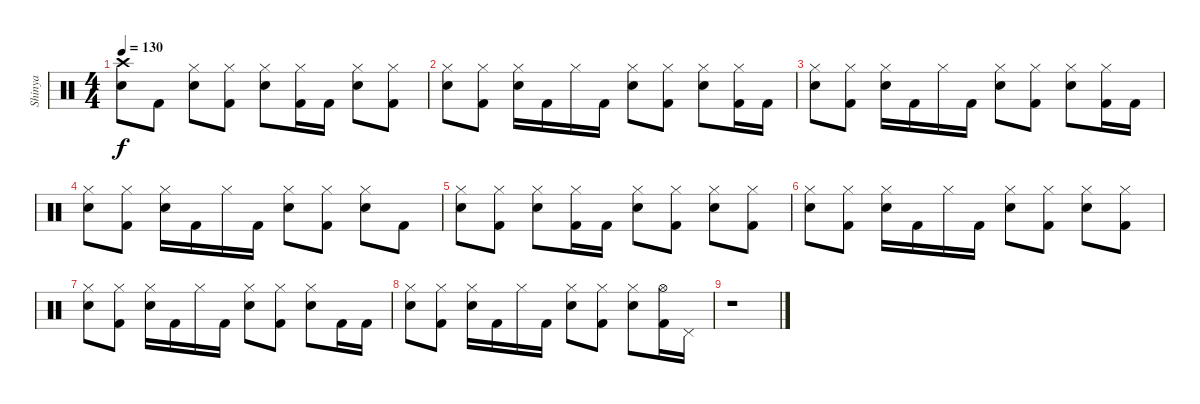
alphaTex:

\track ("Shinya" "Shinya") {instrument percussion}
\staff {score}
\articulation defaults
\ts (4 4)
\tempo 130
\clef neutral
\ks c
("Crash high (hit)" "Electric Snare (hit)").8{dy f} "Kick (hit) 2".8 ("Hi-Hat (closed)" "Electric Snare (hit)").8 ("Hi-Hat (closed)" "Kick (hit) 2").8 ("Hi-Hat (closed)" "Electric Snare (hit)").8 ("Hi-Hat (closed)" "Kick (hit) 2").16 "Kick (hit) 2".16 ("Hi-Hat (closed)" "Electric Snare (hit)").8 ("Hi-Hat (closed)" "Kick (hit) 2").8 |
("Hi-Hat (closed)" "Electric Snare (hit)").8 ("Hi-Hat (closed)" "Kick (hit) 2").8 ("Hi-Hat (closed)" "Electric Snare (hit)").16 "Kick (hit) 2".16 "Hi-Hat (closed)".16 "Kick (hit) 2".16 ("Hi-Hat (closed)" "Electric Snare (hit)").8 ("Hi-Hat (closed)" "Kick (hit) 2").8 ("Hi-Hat (closed)" "Electric Snare (hit)").8 ("Hi-Hat (closed)" "Kick (hit) 2").16 "Kick (hit) 2".16 |
("Hi-Hat (closed)" "Electric Snare (hit)").8 ("Hi-Hat (closed)" "Kick (hit) 2").8 ("Hi-Hat (closed)" "Electric Snare (hit)").16 "Kick (hit) 2".16 "Hi-Hat (closed)".16 "Kick (hit) 2".16 ("Hi-Hat (closed)" "Electric Snare (hit)").8 ("Hi-Hat (closed)" "Kick (hit) 2").8 ("Hi-Hat (closed)" "Electric Snare (hit)").8 ("Hi-Hat (closed)" "Kick (hit) 2").16 "Kick (hit) 2".16 |
("Hi-Hat (closed)" "Electric Snare (hit)").8 ("Hi-Hat (closed)" "Kick (hit) 2").8 ("Hi-Hat (closed)" "Electric Snare (hit)").16 "Kick (hit) 2".16 "Hi-Hat (closed)".16 "Kick (hit) 2".16 ("Hi-Hat (closed)" "Electric Snare (hit)").8 ("Hi-Hat (closed)" "Kick (hit) 2").8 ("Hi-Hat (closed)" "Electric Snare (hit)").8 "Kick (hit) 2".8 |
("Hi-Hat (closed)" "Electric Snare (hit)").8 ("Hi-Hat (closed)" "Kick (hit) 2").8 ("Hi-Hat (closed)" "Electric Snare (hit)").8 ("Hi-Hat (closed)" "Kick (hit) 2").16 "Kick (hit) 2".16 ("Hi-Hat (closed)" "Electric Snare (hit)").8 ("Hi-Hat (closed)" "Kick (hit) 2").8 ("Hi-Hat (closed)" "Electric Snare (hit)").8 ("Hi-Hat (closed)" "Kick (hit) 2").8 |
("Hi-Hat (closed)" "Electric Snare (hit)").8 ("Hi-Hat (closed)" "Kick (hit) 2").8 ("Hi-Hat (closed)" "Electric Snare (hit)").16 "Kick (hit) 2".16 "Hi-Hat (closed)".16 "Kick (hit) 2".16 ("Hi-Hat (closed)" "Electric Snare (hit)").8 ("Hi-Hat (closed)" "Kick (hit) 2").8 ("Hi-Hat (closed)" "Electric Snare (hit)").8 ("Hi-Hat (closed)" "Kick (hit) 2").8 |
("Hi-Hat (closed)" "Electric Snare (hit)").8 ("Hi-Hat (closed)" "Kick (hit) 2").8 ("Hi-Hat (closed)" "Electric Snare (hit)").16 "Kick (hit) 2".16 "Hi-Hat (closed)".16 "Kick (hit) 2".16 ("Hi-Hat (closed)" "Electric Snare (hit)").8 ("Hi-Hat (closed)" "Kick (hit) 2").8 ("Hi-Hat (closed)" "Electric Snare (hit)").8 "Kick (hit) 2".16 "Kick (hit) 2".16 |
("Hi-Hat (closed)" "Electric Snare (hit)").8 ("Hi-Hat (closed)" "Kick (hit) 2").8 ("Hi-Hat (closed)" "Electric Snare (hit)").16 "Kick (hit) 2".16 "Hi-Hat (closed)".16 "Kick (hit) 2".16 ("Hi-Hat (closed)" "Electric Snare (hit)").8 ("Hi-Hat (closed)" "Kick (hit) 2").8 ("Hi-Hat (closed)" "Electric Snare (hit)").8 ("Hi-Hat (open)" "Kick (hit) 2").16 "Pedal Hi-Hat (hit)".16 |
r.1
